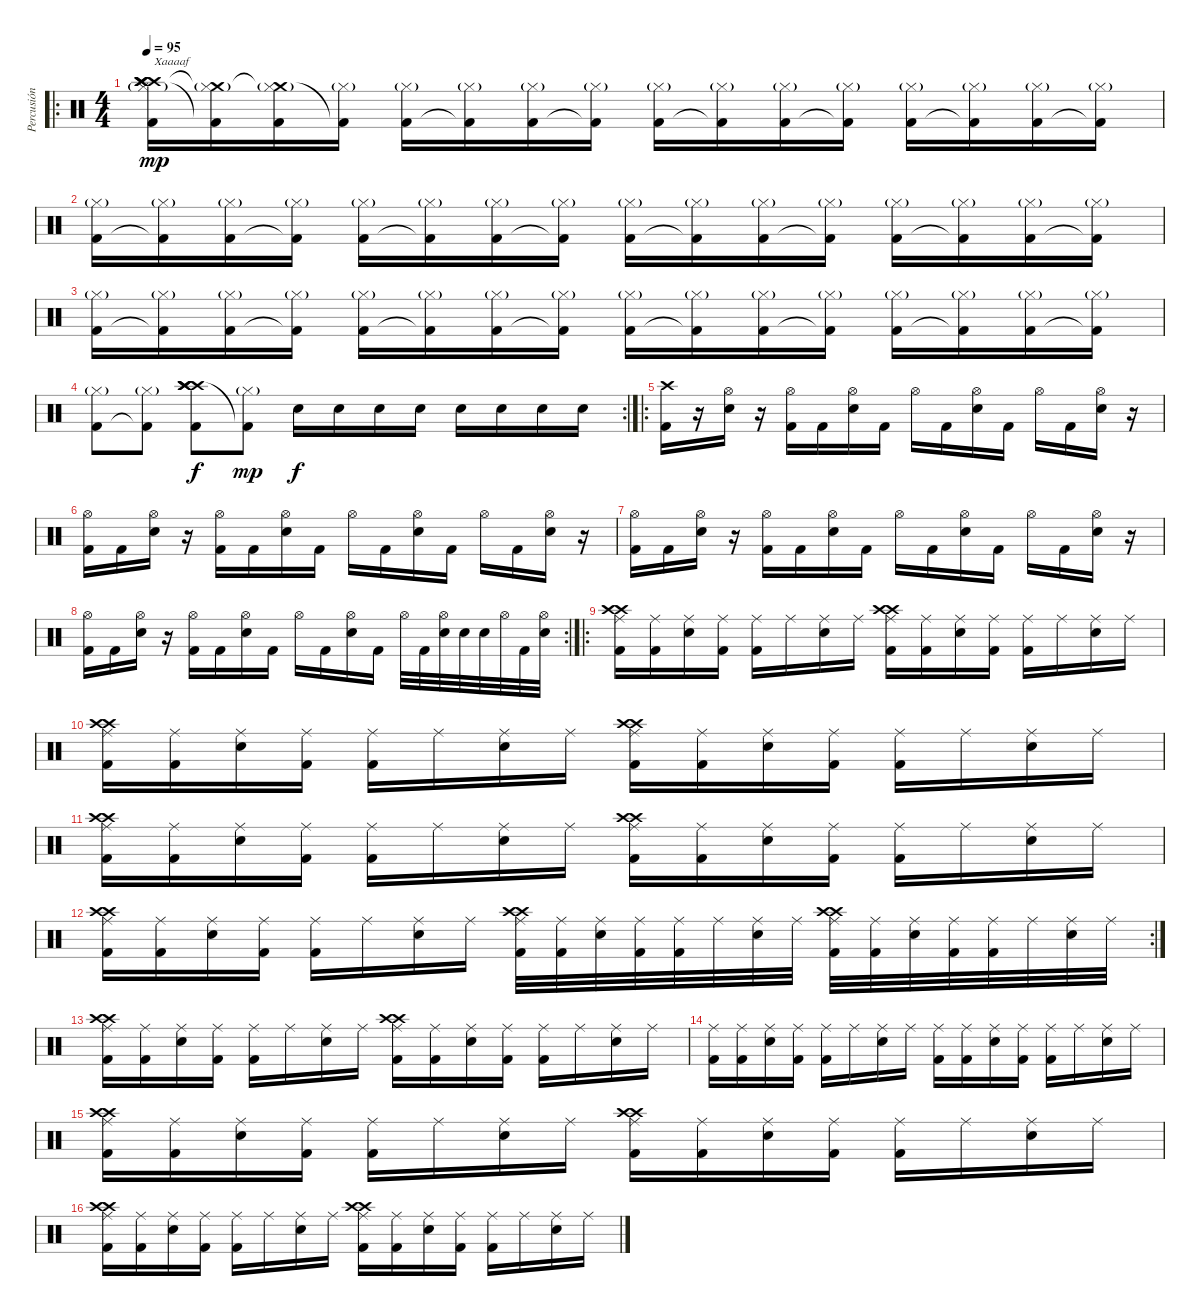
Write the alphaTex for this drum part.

\track ("Percusión" "Percusión") {instrument percussion}
\staff {score}
\articulation defaults
\ro
\ts (4 4)
\tempo 95
\clef neutral
\ks c
("Crash high (hit)" "Crash high (hit)" "Hi-Hat (closed)"{g} "Crash high (hit)" "Crash high (hit)" "Kick (hit) 2").16{txt "Xaaaaf" dy mp} ("Crash medium (hit)"{t} "Hi-Hat (closed)"{g} "Kick (hit) 2"{t}).16 ("Crash medium (hit)"{t} "Hi-Hat (closed)"{g} "Kick (hit) 2").16 ("Hi-Hat (closed)"{g} "Kick (hit) 2"{t}).16 ("Hi-Hat (closed)"{g} "Kick (hit) 2").16 ("Hi-Hat (closed)"{g} "Kick (hit) 2"{t}).16 ("Hi-Hat (closed)"{g} "Kick (hit) 2").16 ("Hi-Hat (closed)"{g} "Kick (hit) 2"{t}).16 ("Hi-Hat (closed)"{g} "Kick (hit) 2").16 ("Hi-Hat (closed)"{g} "Kick (hit) 2"{t}).16 ("Hi-Hat (closed)"{g} "Kick (hit) 2").16 ("Hi-Hat (closed)"{g} "Kick (hit) 2"{t}).16 ("Hi-Hat (closed)"{g} "Kick (hit) 2").16 ("Hi-Hat (closed)"{g} "Kick (hit) 2"{t}).16 ("Hi-Hat (closed)"{g} "Kick (hit) 2").16 ("Hi-Hat (closed)"{g} "Kick (hit) 2"{t}).16 |
("Hi-Hat (closed)"{g} "Kick (hit) 2").16 ("Hi-Hat (closed)"{g} "Kick (hit) 2"{t}).16 ("Hi-Hat (closed)"{g} "Kick (hit) 2").16 ("Hi-Hat (closed)"{g} "Kick (hit) 2"{t}).16 ("Hi-Hat (closed)"{g} "Kick (hit) 2").16 ("Hi-Hat (closed)"{g} "Kick (hit) 2"{t}).16 ("Hi-Hat (closed)"{g} "Kick (hit) 2").16 ("Hi-Hat (closed)"{g} "Kick (hit) 2"{t}).16 ("Hi-Hat (closed)"{g} "Kick (hit) 2").16 ("Hi-Hat (closed)"{g} "Kick (hit) 2"{t}).16 ("Hi-Hat (closed)"{g} "Kick (hit) 2").16 ("Hi-Hat (closed)"{g} "Kick (hit) 2"{t}).16 ("Hi-Hat (closed)"{g} "Kick (hit) 2").16 ("Hi-Hat (closed)"{g} "Kick (hit) 2"{t}).16 ("Hi-Hat (closed)"{g} "Kick (hit) 2").16 ("Hi-Hat (closed)"{g} "Kick (hit) 2"{t}).16 |
("Hi-Hat (closed)"{g} "Kick (hit) 2").16 ("Hi-Hat (closed)"{g} "Kick (hit) 2"{t}).16 ("Hi-Hat (closed)"{g} "Kick (hit) 2").16 ("Hi-Hat (closed)"{g} "Kick (hit) 2"{t}).16 ("Hi-Hat (closed)"{g} "Kick (hit) 2").16 ("Hi-Hat (closed)"{g} "Kick (hit) 2"{t}).16 ("Hi-Hat (closed)"{g} "Kick (hit) 2").16 ("Hi-Hat (closed)"{g} "Kick (hit) 2"{t}).16 ("Hi-Hat (closed)"{g} "Kick (hit) 2").16 ("Hi-Hat (closed)"{g} "Kick (hit) 2"{t}).16 ("Hi-Hat (closed)"{g} "Kick (hit) 2").16 ("Hi-Hat (closed)"{g} "Kick (hit) 2"{t}).16 ("Hi-Hat (closed)"{g} "Kick (hit) 2").16 ("Hi-Hat (closed)"{g} "Kick (hit) 2"{t}).16 ("Hi-Hat (closed)"{g} "Kick (hit) 2").16 ("Hi-Hat (closed)"{g} "Kick (hit) 2"{t}).16 |
\rc 2
("Hi-Hat (closed)"{g} "Kick (hit) 2").8 ("Hi-Hat (closed)"{g} "Kick (hit) 2"{t}).8 ("Crash high (hit)" "Crash high (hit)" "Crash high (hit)" "Crash high (hit)" "Kick (hit) 2").8{dy f} ("Hi-Hat (closed)"{g} "Kick (hit) 2"{t}).8{dy mp} "Snare (hit) 2".16{dy f} "Snare (hit) 2".16 "Snare (hit) 2".16 "Snare (hit) 2".16 "Snare (hit) 2".16 "Snare (hit) 2".16 "Snare (hit) 2".16 "Snare (hit) 2".16 |
\ro
("Kick (hit) 2" "Crash high (hit)").16 r.16 ("Electric Snare (hit)" "Hi-Hat (open)").16 r.16 ("Kick (hit) 2" "Hi-Hat (open)").16 "Kick (hit) 2".16 ("Electric Snare (hit)" "Hi-Hat (open)").16 "Kick (hit) 2".16 "Hi-Hat (open)".16 "Kick (hit) 2".16 ("Electric Snare (hit)" "Hi-Hat (open)").16 "Kick (hit) 2".16 "Hi-Hat (open)".16 "Kick (hit) 2".16 ("Electric Snare (hit)" "Hi-Hat (open)").16 r.16 |
("Kick (hit) 2" "Hi-Hat (open)").16 "Kick (hit) 2".16 ("Electric Snare (hit)" "Hi-Hat (open)").16 r.16 ("Kick (hit) 2" "Hi-Hat (open)").16 "Kick (hit) 2".16 ("Electric Snare (hit)" "Hi-Hat (open)").16 "Kick (hit) 2".16 "Hi-Hat (open)".16 "Kick (hit) 2".16 ("Electric Snare (hit)" "Hi-Hat (open)").16 "Kick (hit) 2".16 "Hi-Hat (open)".16 "Kick (hit) 2".16 ("Electric Snare (hit)" "Hi-Hat (open)").16 r.16 |
("Kick (hit) 2" "Hi-Hat (open)").16 "Kick (hit) 2".16 ("Electric Snare (hit)" "Hi-Hat (open)").16 r.16 ("Kick (hit) 2" "Hi-Hat (open)").16 "Kick (hit) 2".16 ("Electric Snare (hit)" "Hi-Hat (open)").16 "Kick (hit) 2".16 "Hi-Hat (open)".16 "Kick (hit) 2".16 ("Electric Snare (hit)" "Hi-Hat (open)").16 "Kick (hit) 2".16 "Hi-Hat (open)".16 "Kick (hit) 2".16 ("Electric Snare (hit)" "Hi-Hat (open)").16 r.16 |
\rc 2
("Kick (hit) 2" "Hi-Hat (open)").16 "Kick (hit) 2".16 ("Electric Snare (hit)" "Hi-Hat (open)").16 r.16 ("Kick (hit) 2" "Hi-Hat (open)").16 "Kick (hit) 2".16 ("Electric Snare (hit)" "Hi-Hat (open)").16 "Kick (hit) 2".16 "Hi-Hat (open)".16 "Kick (hit) 2".16 ("Electric Snare (hit)" "Hi-Hat (open)").16 "Kick (hit) 2".16 "Hi-Hat (open)".32 "Kick (hit) 2".32 ("Electric Snare (hit)" "Hi-Hat (open)").32 "Electric Snare (hit)".32 "Electric Snare (hit)".32 "Hi-Hat (open)".32 "Kick (hit) 2".32 ("Electric Snare (hit)" "Hi-Hat (open)").32 |
\ro
("Crash high (hit)" "Crash high (hit)" "Ride (middle)" "Kick (hit) 2").16 ("Ride (middle)" "Kick (hit) 2").16 ("Ride (middle)" "Snare (hit) 2").16 ("Ride (middle)" "Kick (hit) 2").16 ("Ride (middle)" "Kick (hit) 2").16 "Ride (middle)".16 ("Ride (middle)" "Snare (hit) 2").16 "Ride (middle)".16 ("Crash high (hit)" "Crash high (hit)" "Ride (middle)" "Kick (hit) 2").16 ("Ride (middle)" "Kick (hit) 2").16 ("Ride (middle)" "Snare (hit) 2").16 ("Ride (middle)" "Kick (hit) 2").16 ("Ride (middle)" "Kick (hit) 2").16 "Ride (middle)".16 ("Ride (middle)" "Snare (hit) 2").16 "Ride (middle)".16 |
("Crash high (hit)" "Crash high (hit)" "Ride (middle)" "Kick (hit) 2").16 ("Ride (middle)" "Kick (hit) 2").16 ("Ride (middle)" "Snare (hit) 2").16 ("Ride (middle)" "Kick (hit) 2").16 ("Ride (middle)" "Kick (hit) 2").16 "Ride (middle)".16 ("Ride (middle)" "Snare (hit) 2").16 "Ride (middle)".16 ("Crash high (hit)" "Crash high (hit)" "Ride (middle)" "Kick (hit) 2").16 ("Ride (middle)" "Kick (hit) 2").16 ("Ride (middle)" "Snare (hit) 2").16 ("Ride (middle)" "Kick (hit) 2").16 ("Ride (middle)" "Kick (hit) 2").16 "Ride (middle)".16 ("Ride (middle)" "Snare (hit) 2").16 "Ride (middle)".16 |
("Crash high (hit)" "Crash high (hit)" "Ride (middle)" "Kick (hit) 2").16 ("Ride (middle)" "Kick (hit) 2").16 ("Ride (middle)" "Snare (hit) 2").16 ("Ride (middle)" "Kick (hit) 2").16 ("Ride (middle)" "Kick (hit) 2").16 "Ride (middle)".16 ("Ride (middle)" "Snare (hit) 2").16 "Ride (middle)".16 ("Crash high (hit)" "Crash high (hit)" "Ride (middle)" "Kick (hit) 2").16 ("Ride (middle)" "Kick (hit) 2").16 ("Ride (middle)" "Snare (hit) 2").16 ("Ride (middle)" "Kick (hit) 2").16 ("Ride (middle)" "Kick (hit) 2").16 "Ride (middle)".16 ("Ride (middle)" "Snare (hit) 2").16 "Ride (middle)".16 |
\rc 2
("Crash high (hit)" "Crash high (hit)" "Ride (middle)" "Kick (hit) 2").16 ("Ride (middle)" "Kick (hit) 2").16 ("Ride (middle)" "Snare (hit) 2").16 ("Ride (middle)" "Kick (hit) 2").16 ("Ride (middle)" "Kick (hit) 2").16 "Ride (middle)".16 ("Ride (middle)" "Snare (hit) 2").16 "Ride (middle)".16 ("Crash high (hit)" "Crash high (hit)" "Ride (middle)" "Kick (hit) 2").32 ("Ride (middle)" "Kick (hit) 2").32 ("Ride (middle)" "Snare (hit) 2").32 ("Ride (middle)" "Kick (hit) 2").32 ("Ride (middle)" "Kick (hit) 2").32 "Ride (middle)".32 ("Ride (middle)" "Snare (hit) 2").32 "Ride (middle)".32 ("Crash high (hit)" "Crash high (hit)" "Ride (middle)" "Kick (hit) 2").32 ("Ride (middle)" "Kick (hit) 2").32 ("Ride (middle)" "Snare (hit) 2").32 ("Ride (middle)" "Kick (hit) 2").32 ("Ride (middle)" "Kick (hit) 2").32 "Ride (middle)".32 ("Ride (middle)" "Snare (hit) 2").32 "Ride (middle)".32 |
("Crash high (hit)" "Crash high (hit)" "Ride (middle)" "Kick (hit) 2").16 ("Ride (middle)" "Kick (hit) 2").16 ("Ride (middle)" "Snare (hit) 2").16 ("Ride (middle)" "Kick (hit) 2").16 ("Ride (middle)" "Kick (hit) 2").16 "Ride (middle)".16 ("Ride (middle)" "Snare (hit) 2").16 "Ride (middle)".16 ("Crash high (hit)" "Crash high (hit)" "Ride (middle)" "Kick (hit) 2").16 ("Ride (middle)" "Kick (hit) 2").16 ("Ride (middle)" "Snare (hit) 2").16 ("Ride (middle)" "Kick (hit) 2").16 ("Ride (middle)" "Kick (hit) 2").16 "Ride (middle)".16 ("Ride (middle)" "Snare (hit) 2").16 "Ride (middle)".16 |
("Ride (middle)" "Kick (hit) 2").16 ("Ride (middle)" "Kick (hit) 2").16 ("Ride (middle)" "Snare (hit) 2").16 ("Ride (middle)" "Kick (hit) 2").16 ("Ride (middle)" "Kick (hit) 2").16 "Ride (middle)".16 ("Ride (middle)" "Snare (hit) 2").16 "Ride (middle)".16 ("Ride (middle)" "Kick (hit) 2").16 ("Ride (middle)" "Kick (hit) 2").16 ("Ride (middle)" "Snare (hit) 2").16 ("Ride (middle)" "Kick (hit) 2").16 ("Ride (middle)" "Kick (hit) 2").16 "Ride (middle)".16 ("Ride (middle)" "Snare (hit) 2").16 "Ride (middle)".16 |
("Crash high (hit)" "Crash high (hit)" "Ride (middle)" "Kick (hit) 2").16 ("Ride (middle)" "Kick (hit) 2").16 ("Ride (middle)" "Snare (hit) 2").16 ("Ride (middle)" "Kick (hit) 2").16 ("Ride (middle)" "Kick (hit) 2").16 "Ride (middle)".16 ("Ride (middle)" "Snare (hit) 2").16 "Ride (middle)".16 ("Crash high (hit)" "Crash high (hit)" "Ride (middle)" "Kick (hit) 2").16 ("Ride (middle)" "Kick (hit) 2").16 ("Ride (middle)" "Snare (hit) 2").16 ("Ride (middle)" "Kick (hit) 2").16 ("Ride (middle)" "Kick (hit) 2").16 "Ride (middle)".16 ("Ride (middle)" "Snare (hit) 2").16 "Ride (middle)".16 |
("Crash high (hit)" "Crash high (hit)" "Ride (middle)" "Kick (hit) 2").16 ("Ride (middle)" "Kick (hit) 2").16 ("Ride (middle)" "Snare (hit) 2").16 ("Ride (middle)" "Kick (hit) 2").16 ("Ride (middle)" "Kick (hit) 2").16 "Ride (middle)".16 ("Ride (middle)" "Snare (hit) 2").16 "Ride (middle)".16 ("Crash high (hit)" "Crash high (hit)" "Ride (middle)" "Kick (hit) 2").16 ("Ride (middle)" "Kick (hit) 2").16 ("Ride (middle)" "Snare (hit) 2").16 ("Ride (middle)" "Kick (hit) 2").16 ("Ride (middle)" "Kick (hit) 2").16 "Ride (middle)".16 ("Ride (middle)" "Snare (hit) 2").16 "Ride (middle)".16
